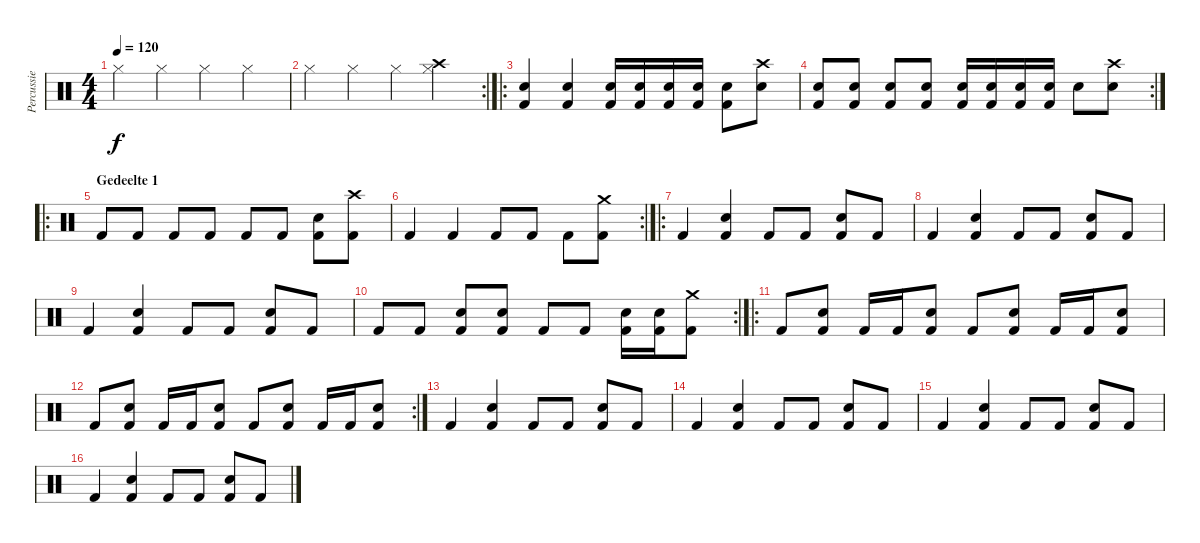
\track ("Percussie" "Percussie") {instrument percussion}
\staff {score}
\articulation defaults
\ts (4 4)
\tempo 120
\clef neutral
\ks c "Hi-Hat (closed)".4{dy f} "Hi-Hat (closed)".4 "Hi-Hat (closed)".4 "Hi-Hat (closed)".4
|
\rc 2 "Hi-Hat (closed)".4 "Hi-Hat (closed)".4 "Hi-Hat (closed)".4
("Crash high (hit)" "Hi-Hat (closed)").4 |
\ro
("Snare (hit) 2" "Kick (hit) 2").4 ("Snare (hit) 2" "Kick (hit) 2").4 ("Snare (hit) 2" "Kick (hit) 2").16 ("Snare (hit) 2" "Kick (hit) 2").16 ("Snare (hit) 2" "Kick (hit) 2").16 ("Snare (hit) 2" "Kick (hit) 2").16 ("Snare (hit) 2" "Kick (hit) 2").8 ("Crash high (hit)" "Snare (hit) 2").8 |
\rc 2
("Snare (hit) 2" "Kick (hit) 2").8 ("Snare (hit) 2" "Kick (hit) 2").8 ("Snare (hit) 2" "Kick (hit) 2").8 ("Snare (hit) 2" "Kick (hit) 2").8 ("Snare (hit) 2" "Kick (hit) 2").16 ("Snare (hit) 2" "Kick (hit) 2").16 ("Snare (hit) 2" "Kick (hit) 2").16 ("Snare (hit) 2" "Kick (hit) 2").16 "Snare (hit) 2".8 ("Crash high (hit)" "Snare (hit) 2").8 |
\ro
\section ("" "Gedeelte 1")
"Kick (hit) 2".8 "Kick (hit) 2".8 "Kick (hit) 2".8 "Kick (hit) 2".8 "Kick (hit) 2".8 "Kick (hit) 2".8 ("Snare (hit) 2" "Kick (hit) 2").8 ("Crash high (hit)" "Kick (hit) 2").8 |
\rc 2 "Kick (hit) 2".4 "Kick (hit) 2".4 "Kick (hit) 2".8 "Kick (hit) 2".8 "Kick (hit) 2".8
("Crash medium (hit)" "Kick (hit) 2").8 |
\ro "Kick (hit) 2".4
("Snare (hit) 2" "Kick (hit) 2").4 "Kick (hit) 2".8 "Kick (hit) 2".8 ("Snare (hit) 2" "Kick (hit) 2").8 "Kick (hit) 2".8 |
"Kick (hit) 2".4 ("Snare (hit) 2" "Kick (hit) 2").4 "Kick (hit) 2".8 "Kick (hit) 2".8 ("Snare (hit) 2" "Kick (hit) 2").8 "Kick (hit) 2".8 |
"Kick (hit) 2".4 ("Snare (hit) 2" "Kick (hit) 2").4 "Kick (hit) 2".8 "Kick (hit) 2".8 ("Snare (hit) 2" "Kick (hit) 2").8 "Kick (hit) 2".8 |
\rc 2 "Kick (hit) 2".8 "Kick (hit) 2".8
("Snare (hit) 2" "Kick (hit) 2").8 ("Snare (hit) 2" "Kick (hit) 2").8 "Kick (hit) 2".8 "Kick (hit) 2".8 ("Snare (hit) 2" "Kick (hit) 2").16 ("Snare (hit) 2" "Kick (hit) 2").16 ("Crash medium (hit)" "Kick (hit) 2").8 |
\ro "Kick (hit) 2".8
("Snare (hit) 2" "Kick (hit) 2").8 "Kick (hit) 2".16 "Kick (hit) 2".16 ("Snare (hit) 2" "Kick (hit) 2").8 "Kick (hit) 2".8 ("Snare (hit) 2" "Kick (hit) 2").8 "Kick (hit) 2".16 "Kick (hit) 2".16 ("Snare (hit) 2" "Kick (hit) 2").8 |
\rc 2 "Kick (hit) 2".8
("Snare (hit) 2" "Kick (hit) 2").8 "Kick (hit) 2".16 "Kick (hit) 2".16 ("Snare (hit) 2" "Kick (hit) 2").8 "Kick (hit) 2".8 ("Snare (hit) 2" "Kick (hit) 2").8 "Kick (hit) 2".16 "Kick (hit) 2".16 ("Snare (hit) 2" "Kick (hit) 2").8 |
"Kick (hit) 2".4 ("Snare (hit) 2" "Kick (hit) 2").4 "Kick (hit) 2".8 "Kick (hit) 2".8 ("Snare (hit) 2" "Kick (hit) 2").8 "Kick (hit) 2".8 |
"Kick (hit) 2".4 ("Snare (hit) 2" "Kick (hit) 2").4 "Kick (hit) 2".8 "Kick (hit) 2".8 ("Snare (hit) 2" "Kick (hit) 2").8 "Kick (hit) 2".8 |
"Kick (hit) 2".4 ("Snare (hit) 2" "Kick (hit) 2").4 "Kick (hit) 2".8 "Kick (hit) 2".8 ("Snare (hit) 2" "Kick (hit) 2").8 "Kick (hit) 2".8 |
"Kick (hit) 2".4 ("Snare (hit) 2" "Kick (hit) 2").4 "Kick (hit) 2".8 "Kick (hit) 2".8 ("Snare (hit) 2" "Kick (hit) 2").8 "Kick (hit) 2".8
